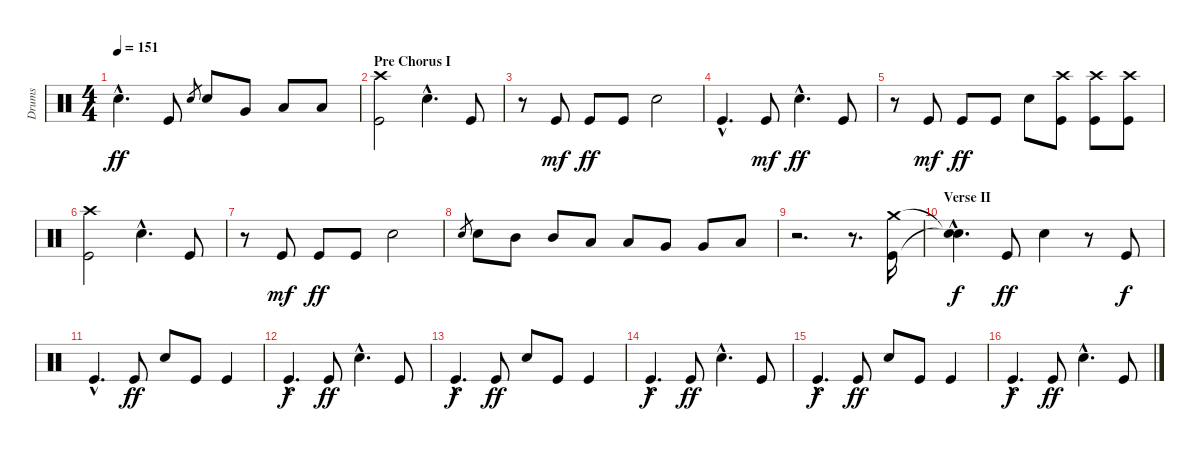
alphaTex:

\track ("Drums" "Drums") {instrument percussion}
\staff {score}
\articulation defaults
\ts (4 4)
\tempo 151
\clef neutral
\ks c "Snare (hit) 2"{hac}.4{d dy ff} "Kick (hit)".8 "Snare (hit) 2".8{gr} "Snare (hit) 2".8 "Very Low Tom (hit)".8 "Low Floor Tom (hit)".8 "Low Floor Tom (hit)".8
|
\section ("" "Pre Chorus I")
("Crash high (hit)" "Kick (hit)").2 "Snare (hit) 2"{hac}.4{d} "Kick (hit)".8 |
r.8 "Kick (hit)".8{dy mf} "Kick (hit)".8{dy ff} "Kick (hit)".8 "Snare (hit) 2".2 |
"Kick (hit)"{hac}.4{d} "Kick (hit)".8{dy mf} "Snare (hit) 2"{hac}.4{d dy ff} "Kick (hit)".8 |
r.8 "Kick (hit)".8{dy mf} "Kick (hit)".8{dy ff} "Kick (hit)".8 "Snare (hit) 2".8 ("Crash high (hit)" "Kick (hit)").8 ("Crash high (hit)" "Kick (hit)").8 ("Crash high (hit)" "Kick (hit)").8 |
("Crash high (hit)" "Kick (hit)").2 "Snare (hit) 2"{hac}.4{d} "Kick (hit)".8 |
r.8 "Kick (hit)".8{dy mf} "Kick (hit)".8{dy ff} "Kick (hit)".8 "Snare (hit) 2".2 |
"Snare (hit) 2".8{gr} "Snare (hit) 2".8 "Mid Tom (hit)".8 "Mid Tom (hit)".8 "Low Tom (hit)".8 "Low Tom (hit)".8 "Very Low Tom (hit)".8 "Very Low Tom (hit)".8 "Low Floor Tom (hit)".8 |
r.2{d} r.8{d} ("Crash medium (hit)" "Kick (hit)").16 |
\section ("" "Verse II")
("Snare (hit)"{hac t} "Snare (hit)"{hac t}).4{d dy f} "Kick (hit)".8{dy ff} "Snare (hit) 2".4 r.8 "Kick (hit)".8{dy f} |
"Kick (hit)"{hac}.4{d} "Kick (hit)".8{dy ff} "Snare (hit) 2".8 "Kick (hit)".8 "Kick (hit)".4 |
"Kick (hit)"{hac}.4{d dy f} "Kick (hit)".8{dy ff} "Snare (hit) 2"{hac}.4{d} "Kick (hit)".8 |
"Kick (hit)"{hac}.4{d dy f} "Kick (hit)".8{dy ff} "Snare (hit) 2".8 "Kick (hit)".8 "Kick (hit)".4 |
"Kick (hit)"{hac}.4{d dy f} "Kick (hit)".8{dy ff} "Snare (hit) 2"{hac}.4{d} "Kick (hit)".8 |
"Kick (hit)"{hac}.4{d dy f} "Kick (hit)".8{dy ff} "Snare (hit) 2".8 "Kick (hit)".8 "Kick (hit)".4 |
"Kick (hit)"{hac}.4{d dy f} "Kick (hit)".8{dy ff} "Snare (hit) 2"{hac}.4{d} "Kick (hit)".8
